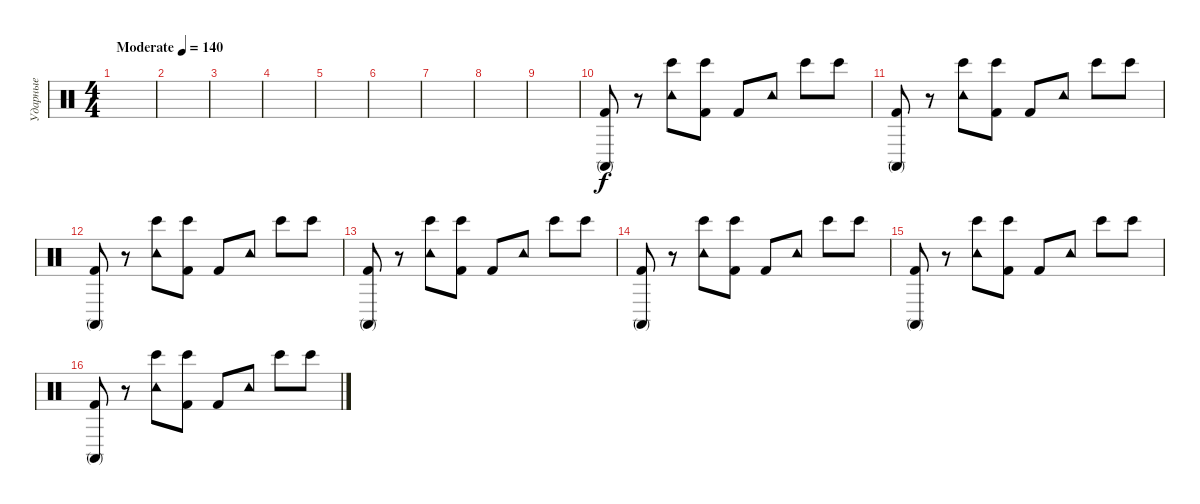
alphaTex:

\track ("Ударные" "Ударные") {instrument percussion}
\staff {score}
\articulation defaults
\ts (4 4)
\tempo (140 "Moderate")
\clef neutral
\ks c
|
|
|
|
|
|
|
|
|
("Kick (hit) 2" "Conga high (mute)").8 r.8 ("Tambourine (hit)" "Bongo High (hit)").8 ("Kick (hit) 2" "Bongo High (hit)").8 "Kick (hit) 2".8 "Tambourine (hit)".8 "Bongo High (hit)".8 "Bongo High (hit)".8 |
("Kick (hit) 2" "Conga high (mute)").8 r.8 ("Tambourine (hit)" "Bongo High (hit)").8 ("Kick (hit) 2" "Bongo High (hit)").8 "Kick (hit) 2".8 "Tambourine (hit)".8 "Bongo High (hit)".8 "Bongo High (hit)".8 |
("Kick (hit) 2" "Conga high (mute)").8 r.8 ("Tambourine (hit)" "Bongo High (hit)").8 ("Kick (hit) 2" "Bongo High (hit)").8 "Kick (hit) 2".8 "Tambourine (hit)".8 "Bongo High (hit)".8 "Bongo High (hit)".8 |
("Kick (hit) 2" "Conga high (mute)").8 r.8 ("Tambourine (hit)" "Bongo High (hit)").8 ("Kick (hit) 2" "Bongo High (hit)").8 "Kick (hit) 2".8 "Tambourine (hit)".8 "Bongo High (hit)".8 "Bongo High (hit)".8 |
("Kick (hit) 2" "Conga high (mute)").8 r.8 ("Tambourine (hit)" "Bongo High (hit)").8 ("Kick (hit) 2" "Bongo High (hit)").8 "Kick (hit) 2".8 "Tambourine (hit)".8 "Bongo High (hit)".8 "Bongo High (hit)".8 |
("Kick (hit) 2" "Conga high (mute)").8 r.8 ("Tambourine (hit)" "Bongo High (hit)").8 ("Kick (hit) 2" "Bongo High (hit)").8 "Kick (hit) 2".8 "Tambourine (hit)".8 "Bongo High (hit)".8 "Bongo High (hit)".8 |
("Kick (hit) 2" "Conga high (mute)").8 r.8 ("Tambourine (hit)" "Bongo High (hit)").8 ("Kick (hit) 2" "Bongo High (hit)").8 "Kick (hit) 2".8 "Tambourine (hit)".8 "Bongo High (hit)".8 "Bongo High (hit)".8
